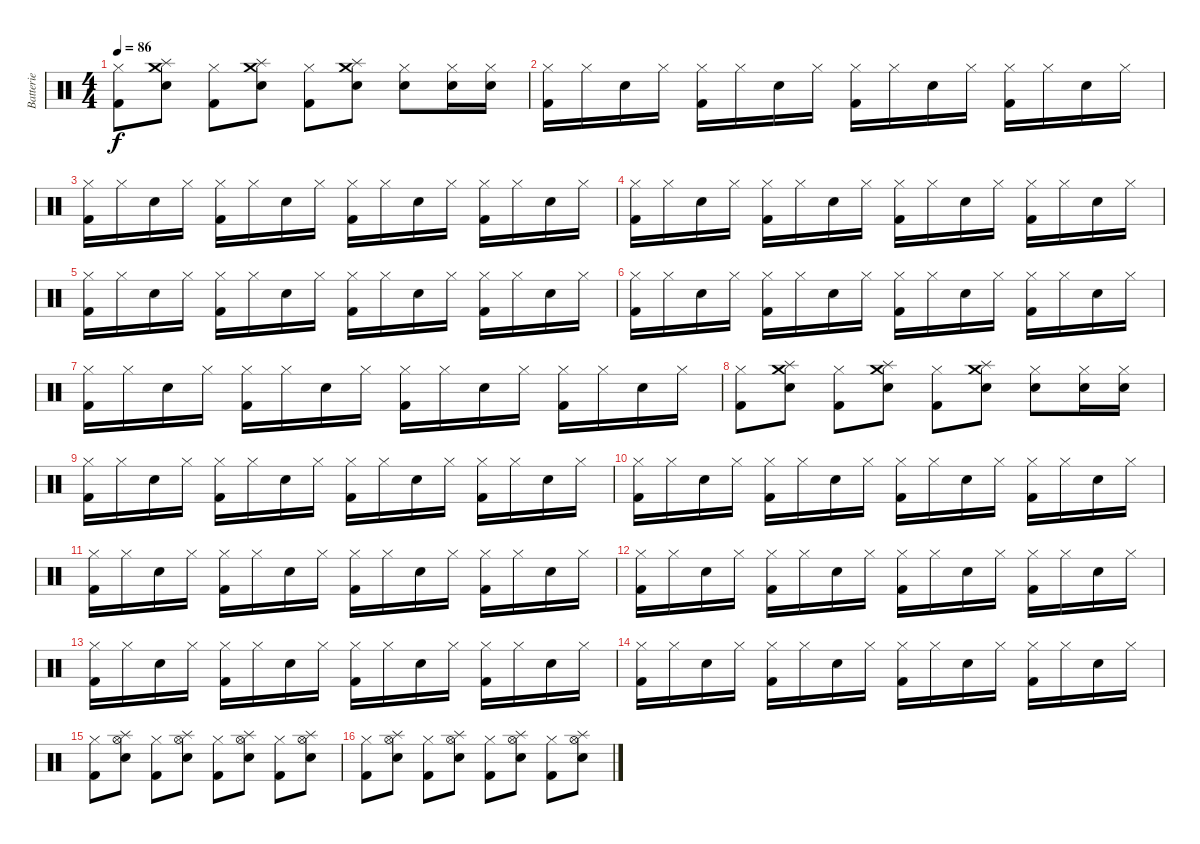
\track ("Batterie" "Batterie") {instrument percussion}
\staff {score}
\articulation defaults
\ts (4 4)
\tempo 86
\clef neutral
\ks c
("Hi-Hat (closed)" "Kick (hit) 2").8{dy f} ("Snare (hit) 2" "Splash (hit)" "Crash medium (hit)").8 ("Hi-Hat (closed)" "Kick (hit) 2").8 ("Snare (hit) 2" "Splash (hit)" "Crash medium (hit)").8 ("Hi-Hat (closed)" "Kick (hit) 2").8 ("Snare (hit) 2" "Splash (hit)" "Crash medium (hit)").8 ("Hi-Hat (closed)" "Snare (hit) 2").8 ("Hi-Hat (closed)" "Snare (hit) 2").16 ("Hi-Hat (closed)" "Snare (hit) 2").16 |
("Hi-Hat (closed)" "Kick (hit) 2").16 "Hi-Hat (closed)".16 "Snare (hit) 2".16 "Hi-Hat (closed)".16 ("Hi-Hat (closed)" "Kick (hit) 2").16 "Hi-Hat (closed)".16 "Snare (hit) 2".16 "Hi-Hat (closed)".16 ("Hi-Hat (closed)" "Kick (hit) 2").16 "Hi-Hat (closed)".16 "Snare (hit) 2".16 "Hi-Hat (closed)".16 ("Hi-Hat (closed)" "Kick (hit) 2").16 "Hi-Hat (closed)".16 "Snare (hit) 2".16 "Hi-Hat (closed)".16 |
("Hi-Hat (closed)" "Kick (hit) 2").16 "Hi-Hat (closed)".16 "Snare (hit) 2".16 "Hi-Hat (closed)".16 ("Hi-Hat (closed)" "Kick (hit) 2").16 "Hi-Hat (closed)".16 "Snare (hit) 2".16 "Hi-Hat (closed)".16 ("Hi-Hat (closed)" "Kick (hit) 2").16 "Hi-Hat (closed)".16 "Snare (hit) 2".16 "Hi-Hat (closed)".16 ("Hi-Hat (closed)" "Kick (hit) 2").16 "Hi-Hat (closed)".16 "Snare (hit) 2".16 "Hi-Hat (closed)".16 |
("Hi-Hat (closed)" "Kick (hit) 2").16 "Hi-Hat (closed)".16 "Snare (hit) 2".16 "Hi-Hat (closed)".16 ("Hi-Hat (closed)" "Kick (hit) 2").16 "Hi-Hat (closed)".16 "Snare (hit) 2".16 "Hi-Hat (closed)".16 ("Hi-Hat (closed)" "Kick (hit) 2").16 "Hi-Hat (closed)".16 "Snare (hit) 2".16 "Hi-Hat (closed)".16 ("Hi-Hat (closed)" "Kick (hit) 2").16 "Hi-Hat (closed)".16 "Snare (hit) 2".16 "Hi-Hat (closed)".16 |
("Hi-Hat (closed)" "Kick (hit) 2").16 "Hi-Hat (closed)".16 "Snare (hit) 2".16 "Hi-Hat (closed)".16 ("Hi-Hat (closed)" "Kick (hit) 2").16 "Hi-Hat (closed)".16 "Snare (hit) 2".16 "Hi-Hat (closed)".16 ("Hi-Hat (closed)" "Kick (hit) 2").16 "Hi-Hat (closed)".16 "Snare (hit) 2".16 "Hi-Hat (closed)".16 ("Hi-Hat (closed)" "Kick (hit) 2").16 "Hi-Hat (closed)".16 "Snare (hit) 2".16 "Hi-Hat (closed)".16 |
("Hi-Hat (closed)" "Kick (hit) 2").16 "Hi-Hat (closed)".16 "Snare (hit) 2".16 "Hi-Hat (closed)".16 ("Hi-Hat (closed)" "Kick (hit) 2").16 "Hi-Hat (closed)".16 "Snare (hit) 2".16 "Hi-Hat (closed)".16 ("Hi-Hat (closed)" "Kick (hit) 2").16 "Hi-Hat (closed)".16 "Snare (hit) 2".16 "Hi-Hat (closed)".16 ("Hi-Hat (closed)" "Kick (hit) 2").16 "Hi-Hat (closed)".16 "Snare (hit) 2".16 "Hi-Hat (closed)".16 |
("Hi-Hat (closed)" "Kick (hit) 2").16 "Hi-Hat (closed)".16 "Snare (hit) 2".16 "Hi-Hat (closed)".16 ("Hi-Hat (closed)" "Kick (hit) 2").16 "Hi-Hat (closed)".16 "Snare (hit) 2".16 "Hi-Hat (closed)".16 ("Hi-Hat (closed)" "Kick (hit) 2").16 "Hi-Hat (closed)".16 "Snare (hit) 2".16 "Hi-Hat (closed)".16 ("Hi-Hat (closed)" "Kick (hit) 2").16 "Hi-Hat (closed)".16 "Snare (hit) 2".16 "Hi-Hat (closed)".16 |
("Hi-Hat (closed)" "Kick (hit) 2").8 ("Snare (hit) 2" "Splash (hit)" "Crash medium (hit)").8 ("Hi-Hat (closed)" "Kick (hit) 2").8 ("Snare (hit) 2" "Splash (hit)" "Crash medium (hit)").8 ("Hi-Hat (closed)" "Kick (hit) 2").8 ("Snare (hit) 2" "Splash (hit)" "Crash medium (hit)").8 ("Hi-Hat (closed)" "Snare (hit) 2").8 ("Hi-Hat (closed)" "Snare (hit) 2").16 ("Hi-Hat (closed)" "Snare (hit) 2").16 |
("Hi-Hat (closed)" "Kick (hit) 2").16 "Hi-Hat (closed)".16 "Snare (hit) 2".16 "Hi-Hat (closed)".16 ("Hi-Hat (closed)" "Kick (hit) 2").16 "Hi-Hat (closed)".16 "Snare (hit) 2".16 "Hi-Hat (closed)".16 ("Hi-Hat (closed)" "Kick (hit) 2").16 "Hi-Hat (closed)".16 "Snare (hit) 2".16 "Hi-Hat (closed)".16 ("Hi-Hat (closed)" "Kick (hit) 2").16 "Hi-Hat (closed)".16 "Snare (hit) 2".16 "Hi-Hat (closed)".16 |
("Hi-Hat (closed)" "Kick (hit) 2").16 "Hi-Hat (closed)".16 "Snare (hit) 2".16 "Hi-Hat (closed)".16 ("Hi-Hat (closed)" "Kick (hit) 2").16 "Hi-Hat (closed)".16 "Snare (hit) 2".16 "Hi-Hat (closed)".16 ("Hi-Hat (closed)" "Kick (hit) 2").16 "Hi-Hat (closed)".16 "Snare (hit) 2".16 "Hi-Hat (closed)".16 ("Hi-Hat (closed)" "Kick (hit) 2").16 "Hi-Hat (closed)".16 "Snare (hit) 2".16 "Hi-Hat (closed)".16 |
("Hi-Hat (closed)" "Kick (hit) 2").16 "Hi-Hat (closed)".16 "Snare (hit) 2".16 "Hi-Hat (closed)".16 ("Hi-Hat (closed)" "Kick (hit) 2").16 "Hi-Hat (closed)".16 "Snare (hit) 2".16 "Hi-Hat (closed)".16 ("Hi-Hat (closed)" "Kick (hit) 2").16 "Hi-Hat (closed)".16 "Snare (hit) 2".16 "Hi-Hat (closed)".16 ("Hi-Hat (closed)" "Kick (hit) 2").16 "Hi-Hat (closed)".16 "Snare (hit) 2".16 "Hi-Hat (closed)".16 |
("Hi-Hat (closed)" "Kick (hit) 2").16 "Hi-Hat (closed)".16 "Snare (hit) 2".16 "Hi-Hat (closed)".16 ("Hi-Hat (closed)" "Kick (hit) 2").16 "Hi-Hat (closed)".16 "Snare (hit) 2".16 "Hi-Hat (closed)".16 ("Hi-Hat (closed)" "Kick (hit) 2").16 "Hi-Hat (closed)".16 "Snare (hit) 2".16 "Hi-Hat (closed)".16 ("Hi-Hat (closed)" "Kick (hit) 2").16 "Hi-Hat (closed)".16 "Snare (hit) 2".16 "Hi-Hat (closed)".16 |
("Hi-Hat (closed)" "Kick (hit) 2").16 "Hi-Hat (closed)".16 "Snare (hit) 2".16 "Hi-Hat (closed)".16 ("Hi-Hat (closed)" "Kick (hit) 2").16 "Hi-Hat (closed)".16 "Snare (hit) 2".16 "Hi-Hat (closed)".16 ("Hi-Hat (closed)" "Kick (hit) 2").16 "Hi-Hat (closed)".16 "Snare (hit) 2".16 "Hi-Hat (closed)".16 ("Hi-Hat (closed)" "Kick (hit) 2").16 "Hi-Hat (closed)".16 "Snare (hit) 2".16 "Hi-Hat (closed)".16 |
("Hi-Hat (closed)" "Kick (hit) 2").16 "Hi-Hat (closed)".16 "Snare (hit) 2".16 "Hi-Hat (closed)".16 ("Hi-Hat (closed)" "Kick (hit) 2").16 "Hi-Hat (closed)".16 "Snare (hit) 2".16 "Hi-Hat (closed)".16 ("Hi-Hat (closed)" "Kick (hit) 2").16 "Hi-Hat (closed)".16 "Snare (hit) 2".16 "Hi-Hat (closed)".16 ("Hi-Hat (closed)" "Kick (hit) 2").16 "Hi-Hat (closed)".16 "Snare (hit) 2".16 "Hi-Hat (closed)".16 |
("Hi-Hat (closed)" "Kick (hit) 2").8 ("Hi-Hat (open)" "Splash (hit)" "Snare (hit) 2").8 ("Hi-Hat (closed)" "Kick (hit) 2").8 ("Hi-Hat (open)" "Splash (hit)" "Snare (hit) 2").8 ("Hi-Hat (closed)" "Kick (hit) 2").8 ("Hi-Hat (open)" "Splash (hit)" "Snare (hit) 2").8 ("Hi-Hat (closed)" "Kick (hit) 2").8 ("Hi-Hat (open)" "Splash (hit)" "Snare (hit) 2").8 |
("Hi-Hat (closed)" "Kick (hit) 2").8 ("Hi-Hat (open)" "Splash (hit)" "Snare (hit) 2").8 ("Hi-Hat (closed)" "Kick (hit) 2").8 ("Hi-Hat (open)" "Splash (hit)" "Snare (hit) 2").8 ("Hi-Hat (closed)" "Kick (hit) 2").8 ("Hi-Hat (open)" "Splash (hit)" "Snare (hit) 2").8 ("Hi-Hat (closed)" "Kick (hit) 2").8 ("Hi-Hat (open)" "Splash (hit)" "Snare (hit) 2").8
